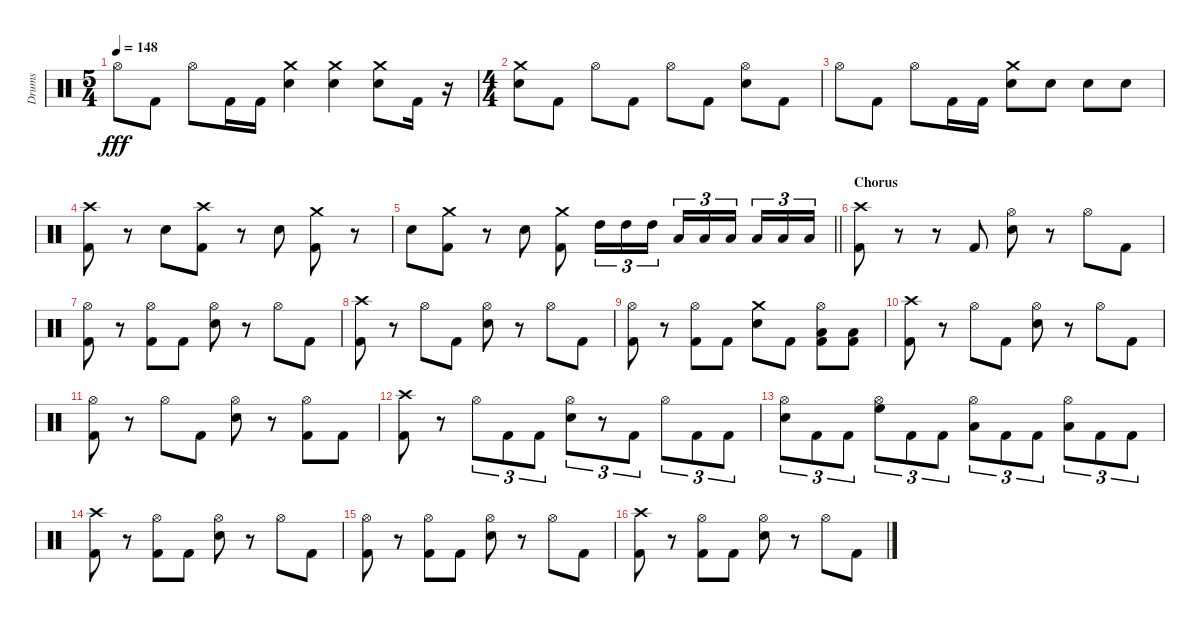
\track ("Drums" "Drums") {instrument percussion}
\staff {score}
\articulation defaults
\ts (5 4)
\tempo 148
\clef neutral
\ks c "Hi-Hat (open)".8{dy fff} "Kick (hit) 2".8 "Hi-Hat (open)".8 "Kick (hit) 2".16 "Kick (hit) 2".16
("Crash medium (hit)" "Electric Snare (hit)").4 ("Crash medium (hit)" "Electric Snare (hit)").4 ("Crash medium (hit)" "Electric Snare (hit)").8 "Kick (hit) 2".16 r.16 |
\ts (4 4)
("Crash medium (hit)" "Electric Snare (hit)").8 "Kick (hit) 2".8 "Hi-Hat (open)".8 "Kick (hit) 2".8 "Hi-Hat (open)".8 "Kick (hit) 2".8 ("Hi-Hat (open)" "Electric Snare (hit)").8 "Kick (hit) 2".8 |
"Hi-Hat (open)".8 "Kick (hit) 2".8 "Hi-Hat (open)".8 "Kick (hit) 2".16 "Kick (hit) 2".16 ("Crash medium (hit)" "Electric Snare (hit)").8 "Electric Snare (hit)".8 "Electric Snare (hit)".8 "Electric Snare (hit)".8 |
("Crash high (hit)" "Kick (hit) 2").8 r.8 "Electric Snare (hit)".8 ("Crash high (hit)" "Kick (hit) 2").8 r.8 "Electric Snare (hit)".8 ("Crash medium (hit)" "Kick (hit) 2").8 r.8 |
\barLineRight lightlight "Electric Snare (hit)".8
("Crash medium (hit)" "Kick (hit) 2").8 r.8 "Electric Snare (hit)".8 ("Crash medium (hit)" "Kick (hit) 2").8 "High Tom (hit)".16{tu (3 2)} "High Tom (hit)".16{tu (3 2)} "High Tom (hit)".16{tu (3 2)} "Low Tom (hit)".16{tu (3 2)} "Low Tom (hit)".16{tu (3 2)} "Low Tom (hit)".16{tu (3 2) beam splitsecondary} "Low Floor Tom (hit)".16{tu (3 2)} "Low Floor Tom (hit)".16{tu (3 2)} "Low Floor Tom (hit)".16{tu (3 2)} |
\section ("" "Chorus")
("Crash high (hit)" "Kick (hit) 2").8 r.8 r.8 "Kick (hit) 2".8 ("Hi-Hat (open)" "Electric Snare (hit)").8 r.8 "Hi-Hat (open)".8 "Kick (hit) 2".8 |
("Hi-Hat (open)" "Kick (hit) 2").8 r.8 ("Hi-Hat (open)" "Kick (hit) 2").8 "Kick (hit) 2".8 ("Hi-Hat (open)" "Electric Snare (hit)").8 r.8 "Hi-Hat (open)".8 "Kick (hit) 2".8 |
("Crash high (hit)" "Kick (hit) 2").8 r.8 "Hi-Hat (open)".8 "Kick (hit) 2".8 ("Hi-Hat (open)" "Electric Snare (hit)").8 r.8 "Hi-Hat (open)".8 "Kick (hit) 2".8 |
("Hi-Hat (open)" "Kick (hit) 2").8 r.8 ("Hi-Hat (open)" "Kick (hit) 2").8 "Kick (hit) 2".8 ("Crash medium (hit)" "Electric Snare (hit)").8 "Kick (hit) 2".8 ("Hi-Hat (open)" "Low Tom (hit)" "Kick (hit) 2").8 ("Low Tom (hit)" "Kick (hit) 2").8 |
("Crash high (hit)" "Kick (hit) 2").8 r.8 "Hi-Hat (open)".8 "Kick (hit) 2".8 ("Hi-Hat (open)" "Electric Snare (hit)").8 r.8 "Hi-Hat (open)".8 "Kick (hit) 2".8 |
("Hi-Hat (open)" "Kick (hit) 2").8 r.8 "Hi-Hat (open)".8 "Kick (hit) 2".8 ("Hi-Hat (open)" "Electric Snare (hit)").8 r.8 ("Hi-Hat (open)" "Kick (hit) 2").8 "Kick (hit) 2".8 |
("Crash high (hit)" "Kick (hit) 2").8 r.8 "Hi-Hat (open)".8{tu (3 2)} "Kick (hit) 2".8{tu (3 2)} "Kick (hit) 2".8{tu (3 2)} ("Hi-Hat (open)" "Electric Snare (hit)").8{tu (3 2)} r.8{tu (3 2)} "Kick (hit) 2".8{tu (3 2)} "Hi-Hat (open)".8{tu (3 2)} "Kick (hit) 2".8{tu (3 2)} "Kick (hit) 2".8{tu (3 2)} |
("Hi-Hat (open)" "Electric Snare (hit)").8{tu (3 2)} "Kick (hit) 2".8{tu (3 2)} "Kick (hit) 2".8{tu (3 2)} ("Hi-Hat (open)" "High Floor Tom (hit)").8{tu (3 2)} "Kick (hit) 2".8{tu (3 2)} "Kick (hit) 2".8{tu (3 2)} ("Hi-Hat (open)" "Low Tom (hit)").8{tu (3 2)} "Kick (hit) 2".8{tu (3 2)} "Kick (hit) 2".8{tu (3 2)} ("Hi-Hat (open)" "Low Floor Tom (hit)").8{tu (3 2)} "Kick (hit) 2".8{tu (3 2)} "Kick (hit) 2".8{tu (3 2)} |
("Crash high (hit)" "Kick (hit) 2").8 r.8 ("Hi-Hat (open)" "Kick (hit) 2").8 "Kick (hit) 2".8 ("Hi-Hat (open)" "Electric Snare (hit)").8 r.8 "Hi-Hat (open)".8 "Kick (hit) 2".8 |
("Hi-Hat (open)" "Kick (hit) 2").8 r.8 ("Hi-Hat (open)" "Kick (hit) 2").8 "Kick (hit) 2".8 ("Hi-Hat (open)" "Electric Snare (hit)").8 r.8 "Hi-Hat (open)".8 "Kick (hit) 2".8 |
("Crash high (hit)" "Kick (hit) 2").8 r.8 ("Hi-Hat (open)" "Kick (hit) 2").8 "Kick (hit) 2".8 ("Hi-Hat (open)" "Electric Snare (hit)").8 r.8 "Hi-Hat (open)".8 "Kick (hit) 2".8
